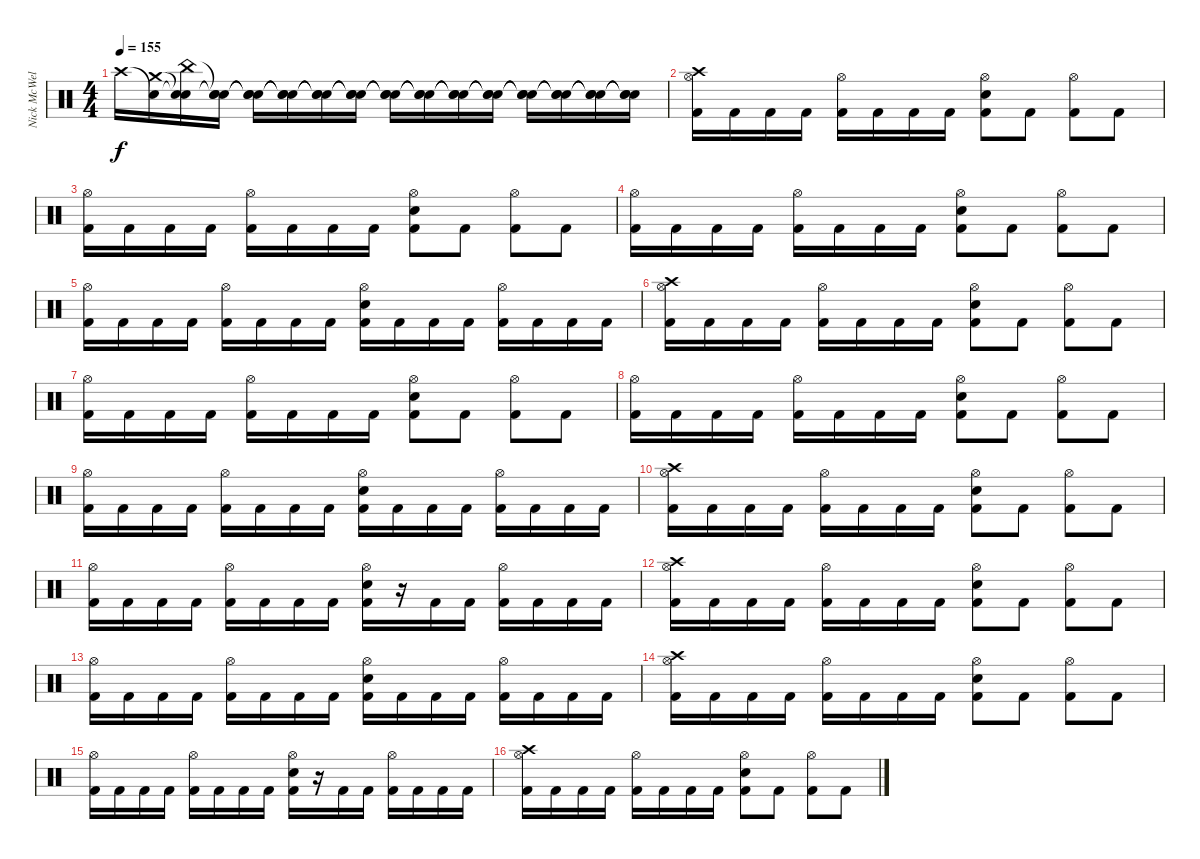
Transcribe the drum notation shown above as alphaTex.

\track ("Nick McWells" "Nick McWel") {instrument percussion}
\staff {score}
\articulation defaults
\ts (4 4)
\tempo 155
\clef neutral
\ks c "Crash high (hit)".16{dy f}
("Snare (hit)"{t} "Crash medium (hit)").16 ("Snare (hit)"{t} "Snare (hit)"{t} "China (hit)").16 ("Snare (hit)"{t} "Snare (hit)"{t} "Snare (hit)"{t}).16 ("Snare (hit)"{t} "Snare (hit)"{t} "Snare (hit)"{t}).16 ("Snare (hit)"{t} "Snare (hit)"{t} "Snare (hit)"{t}).16 ("Snare (hit)"{t} "Snare (hit)"{t} "Snare (hit)"{t}).16 ("Snare (hit)"{t} "Snare (hit)"{t} "Snare (hit)"{t}).16 ("Snare (hit)"{t} "Snare (hit)"{t} "Snare (hit)"{t}).16 ("Snare (hit)"{t} "Snare (hit)"{t} "Snare (hit)"{t}).16 ("Snare (hit)"{t} "Snare (hit)"{t} "Snare (hit)"{t}).16 ("Snare (hit)"{t} "Snare (hit)"{t} "Snare (hit)"{t}).16 ("Snare (hit)"{t} "Snare (hit)"{t} "Snare (hit)"{t}).16 ("Snare (hit)"{t} "Snare (hit)"{t} "Snare (hit)"{t}).16 ("Snare (hit)"{t} "Snare (hit)"{t} "Snare (hit)"{t}).16 ("Snare (hit)"{t} "Snare (hit)"{t} "Snare (hit)"{t}).16 |
("Crash high (hit)" "Hi-Hat (open)" "Kick (hit) 2").16 "Kick (hit) 2".16 "Kick (hit) 2".16 "Kick (hit) 2".16 ("Hi-Hat (open)" "Kick (hit) 2").16 "Kick (hit) 2".16 "Kick (hit) 2".16 "Kick (hit) 2".16 ("Electric Snare (hit)" "Hi-Hat (open)" "Kick (hit) 2").8 "Kick (hit) 2".8 ("Hi-Hat (open)" "Kick (hit) 2").8 "Kick (hit) 2".8 |
("Hi-Hat (open)" "Kick (hit) 2").16 "Kick (hit) 2".16 "Kick (hit) 2".16 "Kick (hit) 2".16 ("Hi-Hat (open)" "Kick (hit) 2").16 "Kick (hit) 2".16 "Kick (hit) 2".16 "Kick (hit) 2".16 ("Electric Snare (hit)" "Hi-Hat (open)" "Kick (hit) 2").8 "Kick (hit) 2".8 ("Hi-Hat (open)" "Kick (hit) 2").8 "Kick (hit) 2".8 |
("Hi-Hat (open)" "Kick (hit) 2").16 "Kick (hit) 2".16 "Kick (hit) 2".16 "Kick (hit) 2".16 ("Hi-Hat (open)" "Kick (hit) 2").16 "Kick (hit) 2".16 "Kick (hit) 2".16 "Kick (hit) 2".16 ("Electric Snare (hit)" "Hi-Hat (open)" "Kick (hit) 2").8 "Kick (hit) 2".8 ("Hi-Hat (open)" "Kick (hit) 2").8 "Kick (hit) 2".8 |
("Hi-Hat (open)" "Kick (hit) 2").16 "Kick (hit) 2".16 "Kick (hit) 2".16 "Kick (hit) 2".16 ("Hi-Hat (open)" "Kick (hit) 2").16 "Kick (hit) 2".16 "Kick (hit) 2".16 "Kick (hit) 2".16 ("Hi-Hat (open)" "Electric Snare (hit)" "Kick (hit) 2").16 "Kick (hit) 2".16 "Kick (hit) 2".16 "Kick (hit) 2".16 ("Hi-Hat (open)" "Kick (hit) 2").16 "Kick (hit) 2".16 "Kick (hit) 2".16 "Kick (hit) 2".16 |
("Crash high (hit)" "Hi-Hat (open)" "Kick (hit) 2").16 "Kick (hit) 2".16 "Kick (hit) 2".16 "Kick (hit) 2".16 ("Hi-Hat (open)" "Kick (hit) 2").16 "Kick (hit) 2".16 "Kick (hit) 2".16 "Kick (hit) 2".16 ("Electric Snare (hit)" "Hi-Hat (open)" "Kick (hit) 2").8 "Kick (hit) 2".8 ("Hi-Hat (open)" "Kick (hit) 2").8 "Kick (hit) 2".8 |
("Hi-Hat (open)" "Kick (hit) 2").16 "Kick (hit) 2".16 "Kick (hit) 2".16 "Kick (hit) 2".16 ("Hi-Hat (open)" "Kick (hit) 2").16 "Kick (hit) 2".16 "Kick (hit) 2".16 "Kick (hit) 2".16 ("Electric Snare (hit)" "Hi-Hat (open)" "Kick (hit) 2").8 "Kick (hit) 2".8 ("Hi-Hat (open)" "Kick (hit) 2").8 "Kick (hit) 2".8 |
("Hi-Hat (open)" "Kick (hit) 2").16 "Kick (hit) 2".16 "Kick (hit) 2".16 "Kick (hit) 2".16 ("Hi-Hat (open)" "Kick (hit) 2").16 "Kick (hit) 2".16 "Kick (hit) 2".16 "Kick (hit) 2".16 ("Electric Snare (hit)" "Hi-Hat (open)" "Kick (hit) 2").8 "Kick (hit) 2".8 ("Hi-Hat (open)" "Kick (hit) 2").8 "Kick (hit) 2".8 |
("Hi-Hat (open)" "Kick (hit) 2").16 "Kick (hit) 2".16 "Kick (hit) 2".16 "Kick (hit) 2".16 ("Hi-Hat (open)" "Kick (hit) 2").16 "Kick (hit) 2".16 "Kick (hit) 2".16 "Kick (hit) 2".16 ("Hi-Hat (open)" "Electric Snare (hit)" "Kick (hit) 2").16 "Kick (hit) 2".16 "Kick (hit) 2".16 "Kick (hit) 2".16 ("Hi-Hat (open)" "Kick (hit) 2").16 "Kick (hit) 2".16 "Kick (hit) 2".16 "Kick (hit) 2".16 |
("Crash high (hit)" "Hi-Hat (open)" "Kick (hit) 2").16 "Kick (hit) 2".16 "Kick (hit) 2".16 "Kick (hit) 2".16 ("Hi-Hat (open)" "Kick (hit) 2").16 "Kick (hit) 2".16 "Kick (hit) 2".16 "Kick (hit) 2".16 ("Electric Snare (hit)" "Hi-Hat (open)" "Kick (hit) 2").8 "Kick (hit) 2".8 ("Hi-Hat (open)" "Kick (hit) 2").8 "Kick (hit) 2".8 |
("Hi-Hat (open)" "Kick (hit) 2").16 "Kick (hit) 2".16 "Kick (hit) 2".16 "Kick (hit) 2".16 ("Hi-Hat (open)" "Kick (hit) 2").16 "Kick (hit) 2".16 "Kick (hit) 2".16 "Kick (hit) 2".16 ("Hi-Hat (open)" "Electric Snare (hit)" "Kick (hit) 2").16 r.16 "Kick (hit) 2".16 "Kick (hit) 2".16 ("Hi-Hat (open)" "Kick (hit) 2").16 "Kick (hit) 2".16 "Kick (hit) 2".16 "Kick (hit) 2".16 |
("Crash high (hit)" "Hi-Hat (open)" "Kick (hit) 2").16 "Kick (hit) 2".16 "Kick (hit) 2".16 "Kick (hit) 2".16 ("Hi-Hat (open)" "Kick (hit) 2").16 "Kick (hit) 2".16 "Kick (hit) 2".16 "Kick (hit) 2".16 ("Electric Snare (hit)" "Hi-Hat (open)" "Kick (hit) 2").8 "Kick (hit) 2".8 ("Hi-Hat (open)" "Kick (hit) 2").8 "Kick (hit) 2".8 |
("Hi-Hat (open)" "Kick (hit) 2").16 "Kick (hit) 2".16 "Kick (hit) 2".16 "Kick (hit) 2".16 ("Hi-Hat (open)" "Kick (hit) 2").16 "Kick (hit) 2".16 "Kick (hit) 2".16 "Kick (hit) 2".16 ("Hi-Hat (open)" "Electric Snare (hit)" "Kick (hit) 2").16 "Kick (hit) 2".16 "Kick (hit) 2".16 "Kick (hit) 2".16 ("Hi-Hat (open)" "Kick (hit) 2").16 "Kick (hit) 2".16 "Kick (hit) 2".16 "Kick (hit) 2".16 |
("Crash high (hit)" "Hi-Hat (open)" "Kick (hit) 2").16 "Kick (hit) 2".16 "Kick (hit) 2".16 "Kick (hit) 2".16 ("Hi-Hat (open)" "Kick (hit) 2").16 "Kick (hit) 2".16 "Kick (hit) 2".16 "Kick (hit) 2".16 ("Electric Snare (hit)" "Hi-Hat (open)" "Kick (hit) 2").8 "Kick (hit) 2".8 ("Hi-Hat (open)" "Kick (hit) 2").8 "Kick (hit) 2".8 |
("Hi-Hat (open)" "Kick (hit) 2").16 "Kick (hit) 2".16 "Kick (hit) 2".16 "Kick (hit) 2".16 ("Hi-Hat (open)" "Kick (hit) 2").16 "Kick (hit) 2".16 "Kick (hit) 2".16 "Kick (hit) 2".16 ("Hi-Hat (open)" "Electric Snare (hit)" "Kick (hit) 2").16 r.16 "Kick (hit) 2".16 "Kick (hit) 2".16 ("Hi-Hat (open)" "Kick (hit) 2").16 "Kick (hit) 2".16 "Kick (hit) 2".16 "Kick (hit) 2".16 |
("Crash high (hit)" "Hi-Hat (open)" "Kick (hit) 2").16 "Kick (hit) 2".16 "Kick (hit) 2".16 "Kick (hit) 2".16 ("Hi-Hat (open)" "Kick (hit) 2").16 "Kick (hit) 2".16 "Kick (hit) 2".16 "Kick (hit) 2".16 ("Electric Snare (hit)" "Hi-Hat (open)" "Kick (hit) 2").8 "Kick (hit) 2".8 ("Hi-Hat (open)" "Kick (hit) 2").8 "Kick (hit) 2".8
